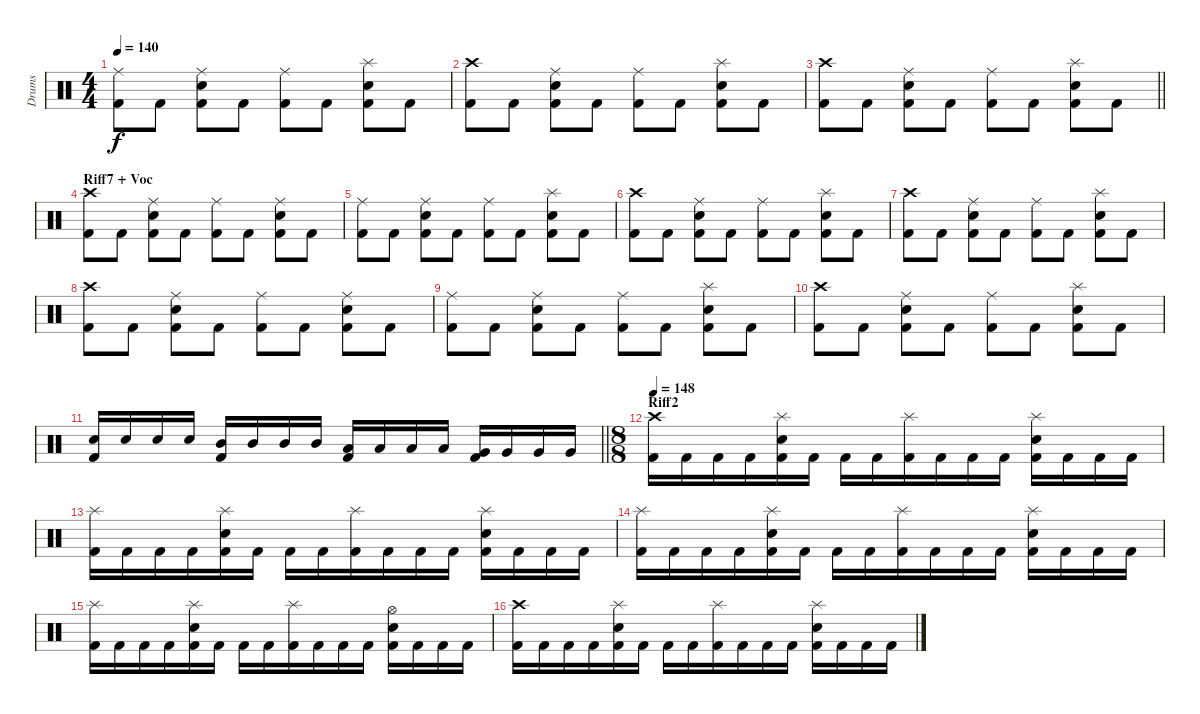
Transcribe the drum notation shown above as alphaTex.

\track ("Drums" "Drums") {instrument percussion}
\staff {score}
\articulation defaults
\ts (4 4)
\tempo 140
\clef neutral
\ks c
("Ride (middle)" "Kick (hit) 2").8{dy f} "Kick (hit) 2".8 ("Ride (middle)" "Snare (hit) 2" "Kick (hit) 2").8 "Kick (hit) 2".8 ("Ride (middle)" "Kick (hit) 2").8 "Kick (hit) 2".8 ("Splash (hit)" "Snare (hit) 2" "Kick (hit) 2").8 "Kick (hit) 2".8 |
("Crash high (hit)" "Kick (hit) 2").8 "Kick (hit) 2".8 ("Ride (middle)" "Snare (hit) 2" "Kick (hit) 2").8 "Kick (hit) 2".8 ("Ride (middle)" "Kick (hit) 2").8 "Kick (hit) 2".8 ("Splash (hit)" "Snare (hit) 2" "Kick (hit) 2").8 "Kick (hit) 2".8 |
\barLineRight lightlight
("Crash high (hit)" "Kick (hit) 2").8 "Kick (hit) 2".8 ("Ride (middle)" "Snare (hit) 2" "Kick (hit) 2").8 "Kick (hit) 2".8 ("Ride (middle)" "Kick (hit) 2").8 "Kick (hit) 2".8 ("Splash (hit)" "Snare (hit) 2" "Kick (hit) 2").8 "Kick (hit) 2".8 |
\section ("" "Riff7 + Voc")
("Crash high (hit)" "Kick (hit) 2").8 "Kick (hit) 2".8 ("Ride (middle)" "Snare (hit) 2" "Kick (hit) 2").8 "Kick (hit) 2".8 ("Ride (middle)" "Kick (hit) 2").8 "Kick (hit) 2".8 ("Ride (middle)" "Snare (hit) 2" "Kick (hit) 2").8 "Kick (hit) 2".8 |
("Ride (middle)" "Kick (hit) 2").8 "Kick (hit) 2".8 ("Ride (middle)" "Snare (hit) 2" "Kick (hit) 2").8 "Kick (hit) 2".8 ("Ride (middle)" "Kick (hit) 2").8 "Kick (hit) 2".8 ("Splash (hit)" "Snare (hit) 2" "Kick (hit) 2").8 "Kick (hit) 2".8 |
("Crash high (hit)" "Kick (hit) 2").8 "Kick (hit) 2".8 ("Ride (middle)" "Snare (hit) 2" "Kick (hit) 2").8 "Kick (hit) 2".8 ("Ride (middle)" "Kick (hit) 2").8 "Kick (hit) 2".8 ("Splash (hit)" "Snare (hit) 2" "Kick (hit) 2").8 "Kick (hit) 2".8 |
("Crash high (hit)" "Kick (hit) 2").8 "Kick (hit) 2".8 ("Ride (middle)" "Snare (hit) 2" "Kick (hit) 2").8 "Kick (hit) 2".8 ("Ride (middle)" "Kick (hit) 2").8 "Kick (hit) 2".8 ("Splash (hit)" "Snare (hit) 2" "Kick (hit) 2").8 "Kick (hit) 2".8 |
("Crash high (hit)" "Kick (hit) 2").8 "Kick (hit) 2".8 ("Ride (middle)" "Snare (hit) 2" "Kick (hit) 2").8 "Kick (hit) 2".8 ("Ride (middle)" "Kick (hit) 2").8 "Kick (hit) 2".8 ("Ride (middle)" "Snare (hit) 2" "Kick (hit) 2").8 "Kick (hit) 2".8 |
("Ride (middle)" "Kick (hit) 2").8 "Kick (hit) 2".8 ("Ride (middle)" "Snare (hit) 2" "Kick (hit) 2").8 "Kick (hit) 2".8 ("Ride (middle)" "Kick (hit) 2").8 "Kick (hit) 2".8 ("Splash (hit)" "Snare (hit) 2" "Kick (hit) 2").8 "Kick (hit) 2".8 |
("Crash high (hit)" "Kick (hit) 2").8 "Kick (hit) 2".8 ("Ride (middle)" "Snare (hit) 2" "Kick (hit) 2").8 "Kick (hit) 2".8 ("Ride (middle)" "Kick (hit) 2").8 "Kick (hit) 2".8 ("Splash (hit)" "Snare (hit) 2" "Kick (hit) 2").8 "Kick (hit) 2".8 |
\barLineRight lightlight
("Snare (hit) 2" "Kick (hit) 2").16 "Snare (hit) 2".16 "Snare (hit) 2".16 "Snare (hit) 2".16 ("Mid Tom (hit)" "Kick (hit) 2").16 "Mid Tom (hit)".16 "Mid Tom (hit)".16 "Mid Tom (hit)".16 ("Low Tom (hit)" "Kick (hit) 2").16 "Low Tom (hit)".16 "Low Tom (hit)".16 "Low Tom (hit)".16 ("Very Low Tom (hit)" "Kick (hit) 2").16 "Very Low Tom (hit)".16 "Very Low Tom (hit)".16 "Very Low Tom (hit)".16 |
\ts (8 8)
\section ("" "Riff2")
\tempo 148
("Crash high (hit)" "Kick (hit) 2").16 "Kick (hit) 2".16 "Kick (hit) 2".16 "Kick (hit) 2".16 ("Splash (hit)" "Snare (hit) 2" "Kick (hit) 2").16 "Kick (hit) 2".16 "Kick (hit) 2".16 "Kick (hit) 2".16 ("Splash (hit)" "Kick (hit) 2").16 "Kick (hit) 2".16 "Kick (hit) 2".16 "Kick (hit) 2".16 ("Splash (hit)" "Snare (hit) 2" "Kick (hit) 2").16 "Kick (hit) 2".16 "Kick (hit) 2".16 "Kick (hit) 2".16 |
("Splash (hit)" "Kick (hit) 2").16 "Kick (hit) 2".16 "Kick (hit) 2".16 "Kick (hit) 2".16 ("Splash (hit)" "Snare (hit) 2" "Kick (hit) 2").16 "Kick (hit) 2".16 "Kick (hit) 2".16 "Kick (hit) 2".16 ("Splash (hit)" "Kick (hit) 2").16 "Kick (hit) 2".16 "Kick (hit) 2".16 "Kick (hit) 2".16 ("Splash (hit)" "Snare (hit) 2" "Kick (hit) 2").16 "Kick (hit) 2".16 "Kick (hit) 2".16 "Kick (hit) 2".16 |
("Splash (hit)" "Kick (hit) 2").16 "Kick (hit) 2".16 "Kick (hit) 2".16 "Kick (hit) 2".16 ("Splash (hit)" "Snare (hit) 2" "Kick (hit) 2").16 "Kick (hit) 2".16 "Kick (hit) 2".16 "Kick (hit) 2".16 ("Splash (hit)" "Kick (hit) 2").16 "Kick (hit) 2".16 "Kick (hit) 2".16 "Kick (hit) 2".16 ("Splash (hit)" "Snare (hit) 2" "Kick (hit) 2").16 "Kick (hit) 2".16 "Kick (hit) 2".16 "Kick (hit) 2".16 |
("Splash (hit)" "Kick (hit) 2").16 "Kick (hit) 2".16 "Kick (hit) 2".16 "Kick (hit) 2".16 ("Splash (hit)" "Snare (hit) 2" "Kick (hit) 2").16 "Kick (hit) 2".16 "Kick (hit) 2".16 "Kick (hit) 2".16 ("Splash (hit)" "Kick (hit) 2").16 "Kick (hit) 2".16 "Kick (hit) 2".16 "Kick (hit) 2".16 ("Hi-Hat (open)" "Snare (hit) 2" "Kick (hit) 2").16 "Kick (hit) 2".16 "Kick (hit) 2".16 "Kick (hit) 2".16 |
("Crash high (hit)" "Kick (hit) 2").16 "Kick (hit) 2".16 "Kick (hit) 2".16 "Kick (hit) 2".16 ("Splash (hit)" "Snare (hit) 2" "Kick (hit) 2").16 "Kick (hit) 2".16 "Kick (hit) 2".16 "Kick (hit) 2".16 ("Splash (hit)" "Kick (hit) 2").16 "Kick (hit) 2".16 "Kick (hit) 2".16 "Kick (hit) 2".16 ("Splash (hit)" "Snare (hit) 2" "Kick (hit) 2").16 "Kick (hit) 2".16 "Kick (hit) 2".16 "Kick (hit) 2".16
